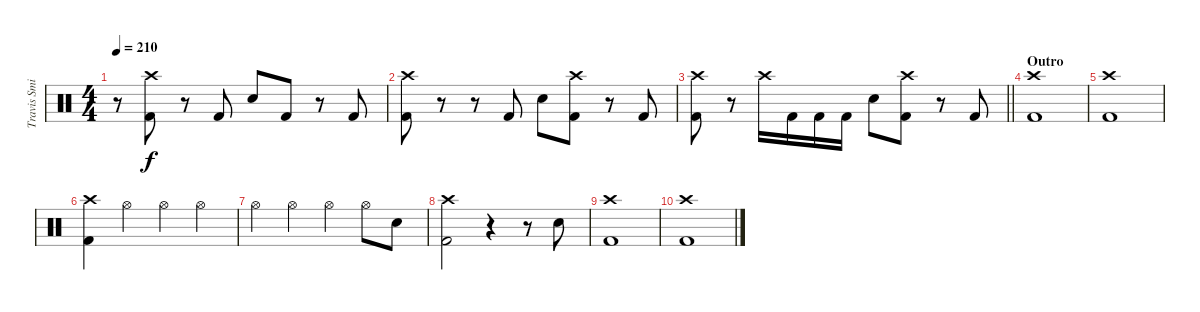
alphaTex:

\track ("Travis Smith" "Travis Smi") {instrument percussion}
\staff {score}
\articulation defaults
\ts (4 4)
\tempo 210
\clef neutral
\ks c
r.8{dy f} ("Crash high (hit)" "Kick (hit) 2").8 r.8 "Kick (hit) 2".8 "Electric Snare (hit)".8 "Kick (hit) 2".8 r.8 "Kick (hit) 2".8 |
("Crash high (hit)" "Kick (hit) 2").8 r.8 r.8 "Kick (hit) 2".8 "Electric Snare (hit)".8 ("Crash high (hit)" "Kick (hit) 2").8 r.8 "Kick (hit) 2".8 |
\barLineRight lightlight
("Crash high (hit)" "Kick (hit) 2").8 r.8 "Crash high (hit)".16 "Kick (hit) 2".16 "Kick (hit) 2".16 "Kick (hit) 2".16 "Electric Snare (hit)".8 ("Crash high (hit)" "Kick (hit) 2").8 r.8 "Kick (hit) 2".8 |
\section ("" "Outro")
("Crash high (hit)" "Kick (hit) 2").1 |
("Crash high (hit)" "Kick (hit) 2").1 |
("Crash high (hit)" "Kick (hit) 2").4 "Hi-Hat (open)".4 "Hi-Hat (open)".4 "Hi-Hat (open)".4 |
"Hi-Hat (open)".4 "Hi-Hat (open)".4 "Hi-Hat (open)".4 "Hi-Hat (open)".8 "Electric Snare (hit)".8 |
("Crash high (hit)" "Kick (hit) 2").2 r.4 r.8 "Electric Snare (hit)".8 |
("Crash high (hit)" "Kick (hit) 2").1 |
("Crash high (hit)" "Kick (hit) 2").1
